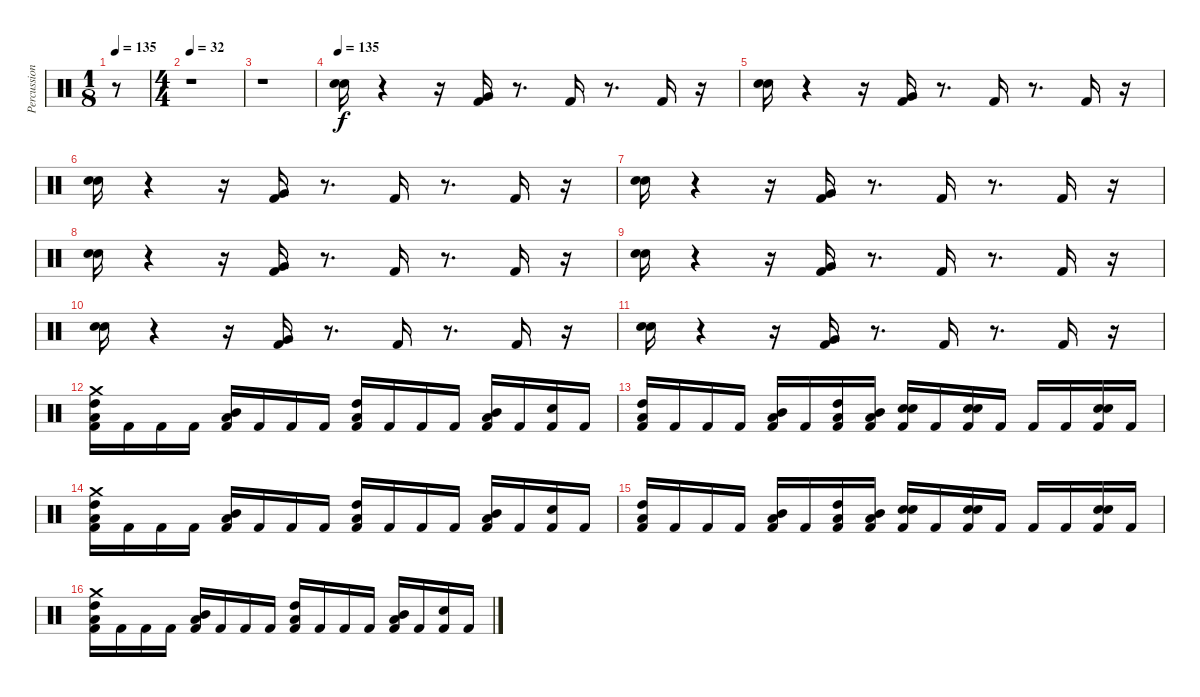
\track ("Percussion" "Percussion") {instrument percussion}
\staff {score}
\articulation defaults
\ts (1 8)
\tempo 135
\clef neutral
\ks c
r.8{dy f} |
\ts (4 4)
\tempo 32
r.1 |
r.1 |
\tempo 135
("Snare (hit) 2" "Electric Snare (hit)").16 r.4 r.16 ("Kick (hit) 2" "Very Low Tom (hit)").16 r.8{d} "Kick (hit) 2".16 r.8{d} "Kick (hit) 2".16 r.16 |
("Snare (hit) 2" "Electric Snare (hit)").16 r.4 r.16 ("Kick (hit) 2" "Very Low Tom (hit)").16 r.8{d} "Kick (hit) 2".16 r.8{d} "Kick (hit) 2".16 r.16 |
("Snare (hit) 2" "Electric Snare (hit)").16 r.4 r.16 ("Kick (hit) 2" "Very Low Tom (hit)").16 r.8{d} "Kick (hit) 2".16 r.8{d} "Kick (hit) 2".16 r.16 |
("Snare (hit) 2" "Electric Snare (hit)").16 r.4 r.16 ("Kick (hit) 2" "Very Low Tom (hit)").16 r.8{d} "Kick (hit) 2".16 r.8{d} "Kick (hit) 2".16 r.16 |
("Snare (hit) 2" "Electric Snare (hit)").16 r.4 r.16 ("Kick (hit) 2" "Very Low Tom (hit)").16 r.8{d} "Kick (hit) 2".16 r.8{d} "Kick (hit) 2".16 r.16 |
("Snare (hit) 2" "Electric Snare (hit)").16 r.4 r.16 ("Kick (hit) 2" "Very Low Tom (hit)").16 r.8{d} "Kick (hit) 2".16 r.8{d} "Kick (hit) 2".16 r.16 |
("Snare (hit) 2" "Electric Snare (hit)").16 r.4 r.16 ("Kick (hit) 2" "Very Low Tom (hit)").16 r.8{d} "Kick (hit) 2".16 r.8{d} "Kick (hit) 2".16 r.16 |
("Snare (hit) 2" "Electric Snare (hit)").16 r.4 r.16 ("Kick (hit) 2" "Very Low Tom (hit)").16 r.8{d} "Kick (hit) 2".16 r.8{d} "Kick (hit) 2".16 r.16 |
("Kick (hit) 2" "Low Floor Tom (hit)" "High Tom (hit)" "Crash medium (hit)").16 "Kick (hit) 2".16 "Kick (hit) 2".16 "Kick (hit) 2".16 ("Kick (hit) 2" "Low Floor Tom (hit)" "Mid Tom (hit)").16 "Kick (hit) 2".16 "Kick (hit) 2".16 "Kick (hit) 2".16 ("Kick (hit) 2" "Low Floor Tom (hit)" "High Tom (hit)").16 "Kick (hit) 2".16 "Kick (hit) 2".16 "Kick (hit) 2".16 ("Kick (hit) 2" "Low Floor Tom (hit)" "Mid Tom (hit)").16 "Kick (hit) 2".16 ("Kick (hit) 2" "Electric Snare (hit)").16 "Kick (hit) 2".16 |
("Kick (hit) 2" "Low Floor Tom (hit)" "High Tom (hit)").16 "Kick (hit) 2".16 "Kick (hit) 2".16 "Kick (hit) 2".16 ("Kick (hit) 2" "Low Floor Tom (hit)" "Mid Tom (hit)").16 "Kick (hit) 2".16 ("Kick (hit) 2" "Low Floor Tom (hit)" "High Tom (hit)").16 ("Kick (hit) 2" "Low Floor Tom (hit)" "Mid Tom (hit)").16 ("Kick (hit) 2" "Snare (hit) 2" "Electric Snare (hit)").16 "Kick (hit) 2".16 ("Kick (hit) 2" "Snare (hit) 2" "Electric Snare (hit)").16 "Kick (hit) 2".16 "Kick (hit) 2".16 "Kick (hit) 2".16 ("Kick (hit) 2" "Snare (hit) 2" "Electric Snare (hit)").16 "Kick (hit) 2".16 |
("Kick (hit) 2" "Low Floor Tom (hit)" "High Tom (hit)" "Crash medium (hit)").16 "Kick (hit) 2".16 "Kick (hit) 2".16 "Kick (hit) 2".16 ("Kick (hit) 2" "Low Floor Tom (hit)" "Mid Tom (hit)").16 "Kick (hit) 2".16 "Kick (hit) 2".16 "Kick (hit) 2".16 ("Kick (hit) 2" "Low Floor Tom (hit)" "High Tom (hit)").16 "Kick (hit) 2".16 "Kick (hit) 2".16 "Kick (hit) 2".16 ("Kick (hit) 2" "Low Floor Tom (hit)" "Mid Tom (hit)").16 "Kick (hit) 2".16 ("Kick (hit) 2" "Electric Snare (hit)").16 "Kick (hit) 2".16 |
("Kick (hit) 2" "Low Floor Tom (hit)" "High Tom (hit)").16 "Kick (hit) 2".16 "Kick (hit) 2".16 "Kick (hit) 2".16 ("Kick (hit) 2" "Low Floor Tom (hit)" "Mid Tom (hit)").16 "Kick (hit) 2".16 ("Kick (hit) 2" "Low Floor Tom (hit)" "High Tom (hit)").16 ("Kick (hit) 2" "Low Floor Tom (hit)" "Mid Tom (hit)").16 ("Kick (hit) 2" "Snare (hit) 2" "Electric Snare (hit)").16 "Kick (hit) 2".16 ("Kick (hit) 2" "Snare (hit) 2" "Electric Snare (hit)").16 "Kick (hit) 2".16 "Kick (hit) 2".16 "Kick (hit) 2".16 ("Kick (hit) 2" "Snare (hit) 2" "Electric Snare (hit)").16 "Kick (hit) 2".16 |
("Kick (hit) 2" "Low Floor Tom (hit)" "High Tom (hit)" "Crash medium (hit)").16 "Kick (hit) 2".16 "Kick (hit) 2".16 "Kick (hit) 2".16 ("Kick (hit) 2" "Low Floor Tom (hit)" "Mid Tom (hit)").16 "Kick (hit) 2".16 "Kick (hit) 2".16 "Kick (hit) 2".16 ("Kick (hit) 2" "Low Floor Tom (hit)" "High Tom (hit)").16 "Kick (hit) 2".16 "Kick (hit) 2".16 "Kick (hit) 2".16 ("Kick (hit) 2" "Low Floor Tom (hit)" "Mid Tom (hit)").16 "Kick (hit) 2".16 ("Kick (hit) 2" "Electric Snare (hit)").16 "Kick (hit) 2".16
